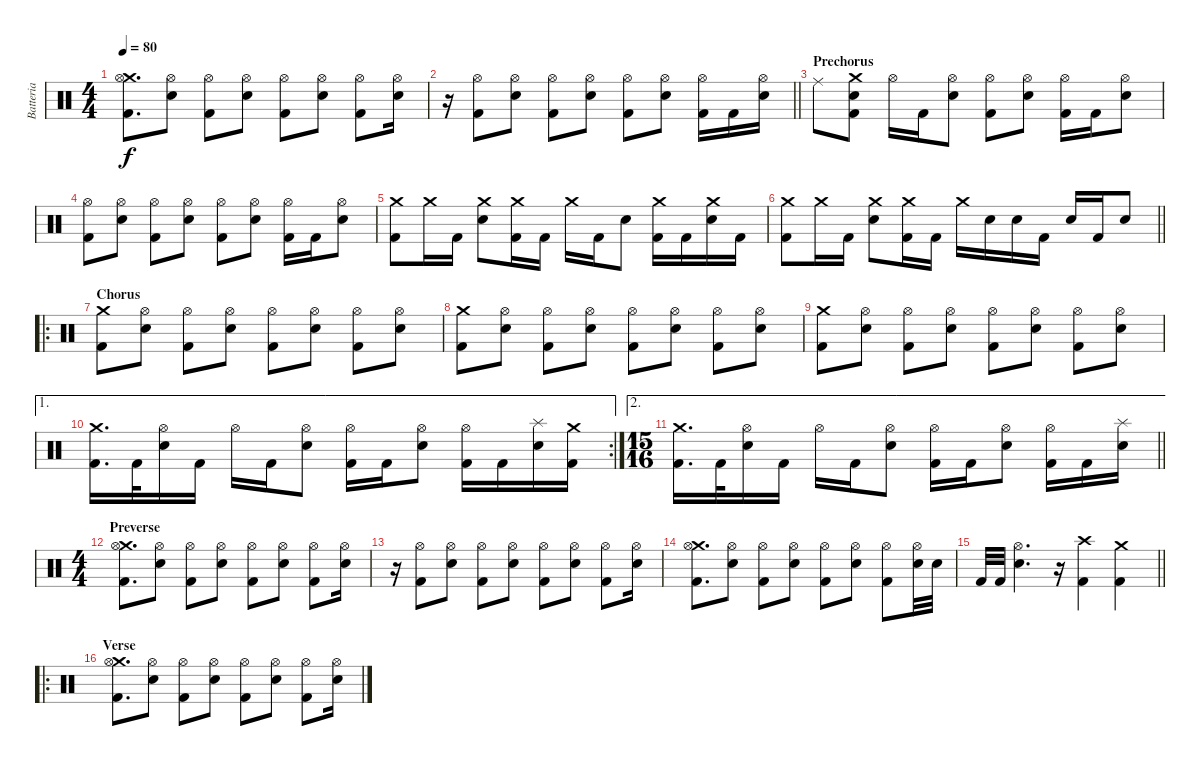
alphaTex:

\track ("Batteria" "Batteria") {instrument percussion}
\staff {score}
\articulation defaults
\ts (4 4)
\tempo 80
\clef neutral
\ks c
("Crash medium (hit)" "Hi-Hat (open)" "Kick (hit) 2").8{d dy f} ("Hi-Hat (open)" "Electric Snare (hit)").8 ("Hi-Hat (open)" "Kick (hit) 2").8 ("Hi-Hat (open)" "Electric Snare (hit)").8 ("Hi-Hat (open)" "Kick (hit) 2").8 ("Hi-Hat (open)" "Electric Snare (hit)").8 ("Hi-Hat (open)" "Kick (hit) 2").8 ("Hi-Hat (open)" "Electric Snare (hit)").16 |
\barLineRight lightlight
r.16 ("Hi-Hat (open)" "Kick (hit) 2").8 ("Hi-Hat (open)" "Electric Snare (hit)").8 ("Hi-Hat (open)" "Kick (hit) 2").8 ("Hi-Hat (open)" "Electric Snare (hit)").8 ("Hi-Hat (open)" "Kick (hit) 2").8 ("Hi-Hat (open)" "Electric Snare (hit)").8 ("Hi-Hat (open)" "Kick (hit) 2").16 "Kick (hit) 2".16 ("Hi-Hat (open)" "Electric Snare (hit)").16 |
\section ("" "Prechorus")
"Ride (middle)".8 ("Crash medium (hit)" "Electric Snare (hit)" "Kick (hit) 2").8 "Hi-Hat (open)".16 "Kick (hit) 2".16 ("Hi-Hat (open)" "Electric Snare (hit)").8 ("Hi-Hat (open)" "Kick (hit) 2").8 ("Hi-Hat (open)" "Electric Snare (hit)").8 ("Hi-Hat (open)" "Kick (hit) 2").16 "Kick (hit) 2".16 ("Hi-Hat (open)" "Electric Snare (hit)").8 |
("Hi-Hat (open)" "Kick (hit) 2").8 ("Hi-Hat (open)" "Electric Snare (hit)").8 ("Hi-Hat (open)" "Kick (hit) 2").8 ("Hi-Hat (open)" "Electric Snare (hit)").8 ("Hi-Hat (open)" "Kick (hit) 2").8 ("Hi-Hat (open)" "Electric Snare (hit)").8 ("Hi-Hat (open)" "Kick (hit) 2").16 "Kick (hit) 2".16 ("Hi-Hat (open)" "Electric Snare (hit)").8 |
("Crash medium (hit)" "Kick (hit) 2").8 "Crash medium (hit)".16 "Kick (hit) 2".16 ("Crash medium (hit)" "Electric Snare (hit)").8 ("Crash medium (hit)" "Kick (hit) 2").16 "Kick (hit) 2".16 "Crash medium (hit)".16 "Kick (hit) 2".16 "Electric Snare (hit)".8 ("Crash medium (hit)" "Kick (hit) 2").16 "Kick (hit) 2".16 ("Crash medium (hit)" "Electric Snare (hit)").16 "Kick (hit) 2".16 |
\barLineRight lightlight
("Crash medium (hit)" "Kick (hit) 2").8 "Crash medium (hit)".16 "Kick (hit) 2".16 ("Crash medium (hit)" "Electric Snare (hit)").8 ("Crash medium (hit)" "Kick (hit) 2").16 "Kick (hit) 2".16 "Crash medium (hit)".16 "Electric Snare (hit)".16 "Electric Snare (hit)".16 "Kick (hit) 2".16 "Electric Snare (hit)".16 "Kick (hit) 2".16 "Electric Snare (hit)".8 |
\ro
\section ("" "Chorus")
("Crash medium (hit)" "Kick (hit) 2").8 ("Hi-Hat (open)" "Electric Snare (hit)").8 ("Hi-Hat (open)" "Kick (hit) 2").8 ("Hi-Hat (open)" "Electric Snare (hit)").8 ("Hi-Hat (open)" "Kick (hit) 2").8 ("Hi-Hat (open)" "Electric Snare (hit)").8 ("Hi-Hat (open)" "Kick (hit) 2").8 ("Hi-Hat (open)" "Electric Snare (hit)").8 |
("Crash medium (hit)" "Kick (hit) 2").8 ("Hi-Hat (open)" "Electric Snare (hit)").8 ("Hi-Hat (open)" "Kick (hit) 2").8 ("Hi-Hat (open)" "Electric Snare (hit)").8 ("Hi-Hat (open)" "Kick (hit) 2").8 ("Hi-Hat (open)" "Electric Snare (hit)").8 ("Hi-Hat (open)" "Kick (hit) 2").8 ("Hi-Hat (open)" "Electric Snare (hit)").8 |
("Crash medium (hit)" "Kick (hit) 2").8 ("Hi-Hat (open)" "Electric Snare (hit)").8 ("Hi-Hat (open)" "Kick (hit) 2").8 ("Hi-Hat (open)" "Electric Snare (hit)").8 ("Hi-Hat (open)" "Kick (hit) 2").8 ("Hi-Hat (open)" "Electric Snare (hit)").8 ("Hi-Hat (open)" "Kick (hit) 2").8 ("Hi-Hat (open)" "Electric Snare (hit)").8 |
\ae 1
\rc 2
("Crash medium (hit)" "Kick (hit) 2").16{d} "Kick (hit) 2".32 ("Hi-Hat (open)" "Electric Snare (hit)").16 "Kick (hit) 2".16 "Hi-Hat (open)".16 "Kick (hit) 2".16 ("Hi-Hat (open)" "Electric Snare (hit)").8 ("Hi-Hat (open)" "Kick (hit) 2").16 "Kick (hit) 2".16 ("Hi-Hat (open)" "Electric Snare (hit)").8 ("Hi-Hat (open)" "Kick (hit) 2").16 "Kick (hit) 2".16 ("Splash (hit)" "Electric Snare (hit)").16 ("Crash medium (hit)" "Kick (hit) 2").16 |
\ae 2
\ts (15 16)
\barLineRight lightlight
("Crash medium (hit)" "Kick (hit) 2").16{d} "Kick (hit) 2".32 ("Hi-Hat (open)" "Electric Snare (hit)").16 "Kick (hit) 2".16 "Hi-Hat (open)".16 "Kick (hit) 2".16 ("Hi-Hat (open)" "Electric Snare (hit)").8 ("Hi-Hat (open)" "Kick (hit) 2").16 "Kick (hit) 2".16 ("Hi-Hat (open)" "Electric Snare (hit)").8 ("Hi-Hat (open)" "Kick (hit) 2").16 "Kick (hit) 2".16 ("Splash (hit)" "Electric Snare (hit)").16 |
\ts (4 4)
\section ("" "Preverse")
("Crash medium (hit)" "Hi-Hat (open)" "Kick (hit) 2").8{d} ("Hi-Hat (open)" "Electric Snare (hit)").8 ("Hi-Hat (open)" "Kick (hit) 2").8 ("Hi-Hat (open)" "Electric Snare (hit)").8 ("Hi-Hat (open)" "Kick (hit) 2").8 ("Hi-Hat (open)" "Electric Snare (hit)").8 ("Hi-Hat (open)" "Kick (hit) 2").8 ("Hi-Hat (open)" "Electric Snare (hit)").16 |
r.16 ("Hi-Hat (open)" "Kick (hit) 2").8 ("Hi-Hat (open)" "Electric Snare (hit)").8 ("Hi-Hat (open)" "Kick (hit) 2").8 ("Hi-Hat (open)" "Electric Snare (hit)").8 ("Hi-Hat (open)" "Kick (hit) 2").8 ("Hi-Hat (open)" "Electric Snare (hit)").8 ("Hi-Hat (open)" "Kick (hit) 2").8 ("Hi-Hat (open)" "Electric Snare (hit)").16 |
("Crash medium (hit)" "Hi-Hat (open)" "Kick (hit) 2").8{d} ("Hi-Hat (open)" "Electric Snare (hit)").8 ("Hi-Hat (open)" "Kick (hit) 2").8 ("Hi-Hat (open)" "Electric Snare (hit)").8 ("Hi-Hat (open)" "Kick (hit) 2").8 ("Hi-Hat (open)" "Electric Snare (hit)").8 ("Hi-Hat (open)" "Kick (hit) 2").8 ("Hi-Hat (open)" "Electric Snare (hit)").32 "Electric Snare (hit)".32 |
\barLineRight lightlight "Kick (hit) 2".32 "Kick (hit) 2".32
("Hi-Hat (open)" "Electric Snare (hit)").4{d} r.16 ("Crash high (hit)" "Kick (hit) 2").4 ("Crash medium (hit)" "Kick (hit) 2").4 |
\ro
\section ("" "Verse")
("Crash medium (hit)" "Hi-Hat (open)" "Kick (hit) 2").8{d} ("Hi-Hat (open)" "Electric Snare (hit)").8 ("Hi-Hat (open)" "Kick (hit) 2").8 ("Hi-Hat (open)" "Electric Snare (hit)").8 ("Hi-Hat (open)" "Kick (hit) 2").8 ("Hi-Hat (open)" "Electric Snare (hit)").8 ("Hi-Hat (open)" "Kick (hit) 2").8 ("Hi-Hat (open)" "Electric Snare (hit)").16
